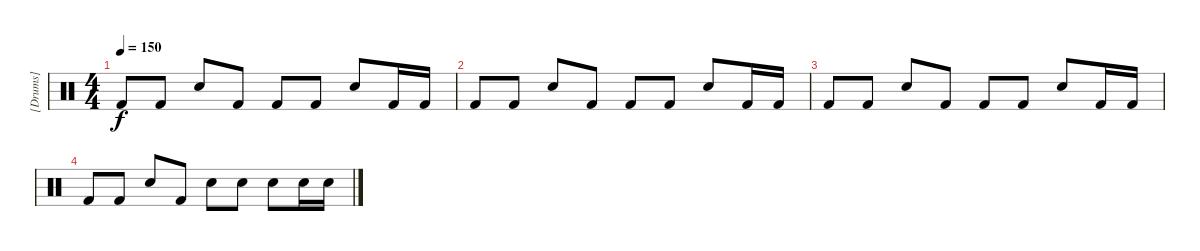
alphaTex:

\track ("[Drums]" "[Drums]") {instrument percussion}
\staff {score}
\articulation defaults
\ts (4 4)
\tempo 150
\clef neutral
\ks c "Kick (hit) 2".8{dy f} "Kick (hit) 2".8 "Electric Snare (hit)".8 "Kick (hit) 2".8 "Kick (hit) 2".8 "Kick (hit) 2".8 "Electric Snare (hit)".8 "Kick (hit) 2".16 "Kick (hit) 2".16
|
"Kick (hit) 2".8 "Kick (hit) 2".8 "Electric Snare (hit)".8 "Kick (hit) 2".8 "Kick (hit) 2".8 "Kick (hit) 2".8 "Electric Snare (hit)".8 "Kick (hit) 2".16 "Kick (hit) 2".16 |
"Kick (hit) 2".8 "Kick (hit) 2".8 "Electric Snare (hit)".8 "Kick (hit) 2".8 "Kick (hit) 2".8 "Kick (hit) 2".8 "Electric Snare (hit)".8 "Kick (hit) 2".16 "Kick (hit) 2".16 |
"Kick (hit) 2".8 "Kick (hit) 2".8 "Electric Snare (hit)".8 "Kick (hit) 2".8 "Electric Snare (hit)".8 "Electric Snare (hit)".8 "Electric Snare (hit)".8 "Electric Snare (hit)".16 "Electric Snare (hit)".16
